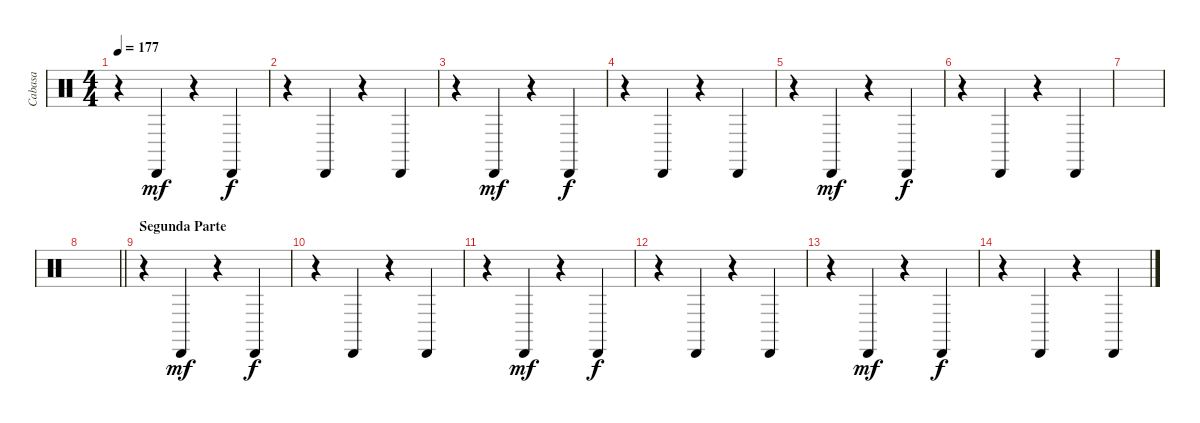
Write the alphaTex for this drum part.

\track ("Cabasa" "Cabasa") {instrument percussion}
\staff {score}
\articulation defaults
\ts (4 4)
\tempo 177
\clef neutral
\ks c
r.4{dy f} "Cabasa (hit)".4{dy mf} r.4 "Cabasa (hit)".4{dy f} |
r.4 "Cabasa (hit)".4 r.4 "Cabasa (hit)".4 |
r.4 "Cabasa (hit)".4{dy mf} r.4 "Cabasa (hit)".4{dy f} |
r.4 "Cabasa (hit)".4 r.4 "Cabasa (hit)".4 |
r.4 "Cabasa (hit)".4{dy mf} r.4 "Cabasa (hit)".4{dy f} |
r.4 "Cabasa (hit)".4 r.4 "Cabasa (hit)".4 |
|
\barLineRight lightlight
|
\section ("" "Segunda Parte")
r.4 "Cabasa (hit)".4{dy mf} r.4 "Cabasa (hit)".4{dy f} |
r.4 "Cabasa (hit)".4 r.4 "Cabasa (hit)".4 |
r.4 "Cabasa (hit)".4{dy mf} r.4 "Cabasa (hit)".4{dy f} |
r.4 "Cabasa (hit)".4 r.4 "Cabasa (hit)".4 |
r.4 "Cabasa (hit)".4{dy mf} r.4 "Cabasa (hit)".4{dy f} |
r.4 "Cabasa (hit)".4 r.4 "Cabasa (hit)".4
